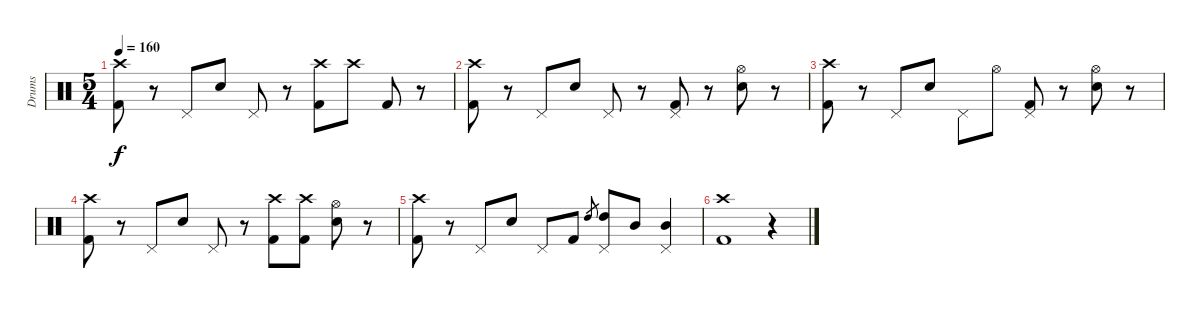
\track ("Drums" "Drums") {instrument percussion}
\staff {score}
\articulation defaults
\ts (5 4)
\tempo 160
\clef neutral
\ks c
("Crash high (hit)" "Kick (hit) 2").8{dy f} r.8 "Pedal Hi-Hat (hit)".8 "Electric Snare (hit)".8 "Pedal Hi-Hat (hit)".8 r.8 ("Crash high (hit)" "Kick (hit) 2").8 "Crash high (hit)".8 "Kick (hit) 2".8 r.8 |
("Crash high (hit)" "Kick (hit) 2").8 r.8 "Pedal Hi-Hat (hit)".8 "Electric Snare (hit)".8 "Pedal Hi-Hat (hit)".8 r.8 ("Pedal Hi-Hat (hit)" "Kick (hit) 2").8 r.8 ("Hi-Hat (open)" "Electric Snare (hit)").8 r.8 |
("Crash high (hit)" "Kick (hit) 2").8 r.8 "Pedal Hi-Hat (hit)".8 "Electric Snare (hit)".8 "Pedal Hi-Hat (hit)".8 "Hi-Hat (open)".8 ("Pedal Hi-Hat (hit)" "Kick (hit) 2").8 r.8 ("Hi-Hat (open)" "Electric Snare (hit)").8 r.8 |
("Crash high (hit)" "Kick (hit) 2").8 r.8 "Pedal Hi-Hat (hit)".8 "Electric Snare (hit)".8 "Pedal Hi-Hat (hit)".8 r.8 ("Crash high (hit)" "Kick (hit) 2").8 ("Crash high (hit)" "Kick (hit) 2").8 ("Hi-Hat (open)" "Electric Snare (hit)").8 r.8 |
("Crash high (hit)" "Kick (hit) 2").8 r.8 "Pedal Hi-Hat (hit)".8 "Electric Snare (hit)".8 "Pedal Hi-Hat (hit)".8 "Kick (hit) 2".8 "High Tom (hit)".8{gr} ("Pedal Hi-Hat (hit)" "High Tom (hit)").8 "Mid Tom (hit)".8 ("Pedal Hi-Hat (hit)" "Mid Tom (hit)").4 |
("Crash high (hit)" "Kick (hit) 2").1 r.4
